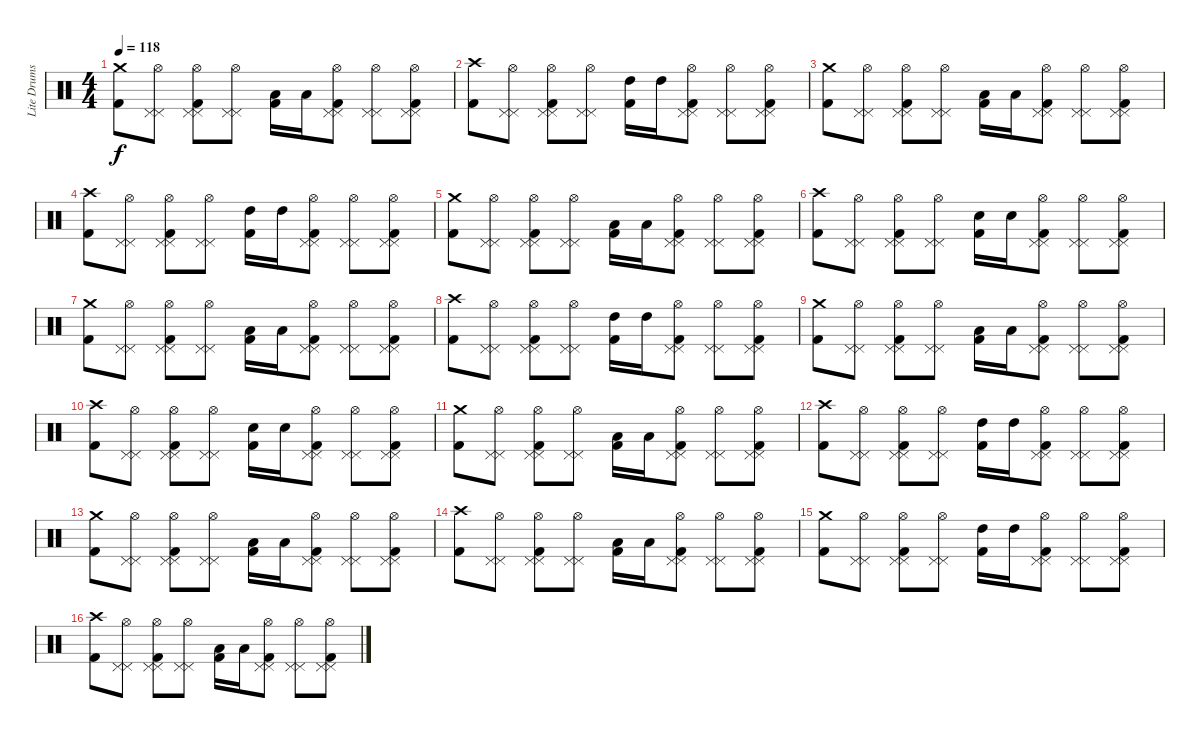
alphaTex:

\track ("Lite Drums" "Lite Drums") {instrument percussion}
\staff {score}
\articulation defaults
\ts (4 4)
\tempo 118
\clef neutral
\ks c
("Crash medium (hit)" "Kick (hit) 2").8{dy f} ("Pedal Hi-Hat (hit)" "Hi-Hat (open)" "Pedal Hi-Hat (hit)").8 ("Pedal Hi-Hat (hit)" "Hi-Hat (open)" "Pedal Hi-Hat (hit)" "Kick (hit) 2").8 ("Pedal Hi-Hat (hit)" "Hi-Hat (open)" "Pedal Hi-Hat (hit)").8 ("Low Tom (hit)" "Kick (hit) 2").16 "Low Tom (hit)".16 ("Pedal Hi-Hat (hit)" "Hi-Hat (open)" "Pedal Hi-Hat (hit)" "Kick (hit) 2").8 ("Pedal Hi-Hat (hit)" "Hi-Hat (open)" "Pedal Hi-Hat (hit)").8 ("Pedal Hi-Hat (hit)" "Hi-Hat (open)" "Pedal Hi-Hat (hit)" "Kick (hit) 2").8 |
("Crash high (hit)" "Kick (hit) 2").8 ("Pedal Hi-Hat (hit)" "Hi-Hat (open)" "Pedal Hi-Hat (hit)").8 ("Pedal Hi-Hat (hit)" "Hi-Hat (open)" "Pedal Hi-Hat (hit)" "Kick (hit) 2").8 ("Pedal Hi-Hat (hit)" "Hi-Hat (open)" "Pedal Hi-Hat (hit)").8 ("High Tom (hit)" "Kick (hit) 2").16 "High Tom (hit)".16 ("Pedal Hi-Hat (hit)" "Hi-Hat (open)" "Pedal Hi-Hat (hit)" "Kick (hit) 2").8 ("Pedal Hi-Hat (hit)" "Hi-Hat (open)" "Pedal Hi-Hat (hit)").8 ("Pedal Hi-Hat (hit)" "Hi-Hat (open)" "Pedal Hi-Hat (hit)" "Kick (hit) 2").8 |
("Crash medium (hit)" "Kick (hit) 2").8 ("Pedal Hi-Hat (hit)" "Hi-Hat (open)" "Pedal Hi-Hat (hit)").8 ("Pedal Hi-Hat (hit)" "Hi-Hat (open)" "Pedal Hi-Hat (hit)" "Kick (hit) 2").8 ("Pedal Hi-Hat (hit)" "Hi-Hat (open)" "Pedal Hi-Hat (hit)").8 ("Low Tom (hit)" "Kick (hit) 2").16 "Low Tom (hit)".16 ("Pedal Hi-Hat (hit)" "Hi-Hat (open)" "Pedal Hi-Hat (hit)" "Kick (hit) 2").8 ("Pedal Hi-Hat (hit)" "Hi-Hat (open)" "Pedal Hi-Hat (hit)").8 ("Pedal Hi-Hat (hit)" "Hi-Hat (open)" "Pedal Hi-Hat (hit)" "Kick (hit) 2").8 |
("Crash high (hit)" "Kick (hit) 2").8 ("Pedal Hi-Hat (hit)" "Hi-Hat (open)" "Pedal Hi-Hat (hit)").8 ("Pedal Hi-Hat (hit)" "Hi-Hat (open)" "Pedal Hi-Hat (hit)" "Kick (hit) 2").8 ("Pedal Hi-Hat (hit)" "Hi-Hat (open)" "Pedal Hi-Hat (hit)").8 ("High Tom (hit)" "Kick (hit) 2").16 "High Tom (hit)".16 ("Pedal Hi-Hat (hit)" "Hi-Hat (open)" "Pedal Hi-Hat (hit)" "Kick (hit) 2").8 ("Pedal Hi-Hat (hit)" "Hi-Hat (open)" "Pedal Hi-Hat (hit)").8 ("Pedal Hi-Hat (hit)" "Hi-Hat (open)" "Pedal Hi-Hat (hit)" "Kick (hit) 2").8 |
("Crash medium (hit)" "Kick (hit) 2").8 ("Pedal Hi-Hat (hit)" "Hi-Hat (open)" "Pedal Hi-Hat (hit)").8 ("Pedal Hi-Hat (hit)" "Hi-Hat (open)" "Pedal Hi-Hat (hit)" "Kick (hit) 2").8 ("Pedal Hi-Hat (hit)" "Hi-Hat (open)" "Pedal Hi-Hat (hit)").8 ("Low Tom (hit)" "Kick (hit) 2").16 "Low Tom (hit)".16 ("Pedal Hi-Hat (hit)" "Hi-Hat (open)" "Pedal Hi-Hat (hit)" "Kick (hit) 2").8 ("Pedal Hi-Hat (hit)" "Hi-Hat (open)" "Pedal Hi-Hat (hit)").8 ("Pedal Hi-Hat (hit)" "Hi-Hat (open)" "Pedal Hi-Hat (hit)" "Kick (hit) 2").8 |
("Crash high (hit)" "Kick (hit) 2").8 ("Pedal Hi-Hat (hit)" "Hi-Hat (open)" "Pedal Hi-Hat (hit)").8 ("Pedal Hi-Hat (hit)" "Hi-Hat (open)" "Pedal Hi-Hat (hit)" "Kick (hit) 2").8 ("Pedal Hi-Hat (hit)" "Hi-Hat (open)" "Pedal Hi-Hat (hit)").8 ("Snare (hit) 2" "Kick (hit) 2").16 "Snare (hit) 2".16 ("Pedal Hi-Hat (hit)" "Hi-Hat (open)" "Pedal Hi-Hat (hit)" "Kick (hit) 2").8 ("Pedal Hi-Hat (hit)" "Hi-Hat (open)" "Pedal Hi-Hat (hit)").8 ("Pedal Hi-Hat (hit)" "Hi-Hat (open)" "Pedal Hi-Hat (hit)" "Kick (hit) 2").8 |
("Crash medium (hit)" "Kick (hit) 2").8 ("Pedal Hi-Hat (hit)" "Hi-Hat (open)" "Pedal Hi-Hat (hit)").8 ("Pedal Hi-Hat (hit)" "Hi-Hat (open)" "Pedal Hi-Hat (hit)" "Kick (hit) 2").8 ("Pedal Hi-Hat (hit)" "Hi-Hat (open)" "Pedal Hi-Hat (hit)").8 ("Low Tom (hit)" "Kick (hit) 2").16 "Low Tom (hit)".16 ("Pedal Hi-Hat (hit)" "Hi-Hat (open)" "Pedal Hi-Hat (hit)" "Kick (hit) 2").8 ("Pedal Hi-Hat (hit)" "Hi-Hat (open)" "Pedal Hi-Hat (hit)").8 ("Pedal Hi-Hat (hit)" "Hi-Hat (open)" "Pedal Hi-Hat (hit)" "Kick (hit) 2").8 |
("Crash high (hit)" "Kick (hit) 2").8 ("Pedal Hi-Hat (hit)" "Hi-Hat (open)" "Pedal Hi-Hat (hit)").8 ("Pedal Hi-Hat (hit)" "Hi-Hat (open)" "Pedal Hi-Hat (hit)" "Kick (hit) 2").8 ("Pedal Hi-Hat (hit)" "Hi-Hat (open)" "Pedal Hi-Hat (hit)").8 ("High Tom (hit)" "Kick (hit) 2").16 "High Tom (hit)".16 ("Pedal Hi-Hat (hit)" "Hi-Hat (open)" "Pedal Hi-Hat (hit)" "Kick (hit) 2").8 ("Pedal Hi-Hat (hit)" "Hi-Hat (open)" "Pedal Hi-Hat (hit)").8 ("Pedal Hi-Hat (hit)" "Hi-Hat (open)" "Pedal Hi-Hat (hit)" "Kick (hit) 2").8 |
("Crash medium (hit)" "Kick (hit) 2").8 ("Pedal Hi-Hat (hit)" "Hi-Hat (open)" "Pedal Hi-Hat (hit)").8 ("Pedal Hi-Hat (hit)" "Hi-Hat (open)" "Pedal Hi-Hat (hit)" "Kick (hit) 2").8 ("Pedal Hi-Hat (hit)" "Hi-Hat (open)" "Pedal Hi-Hat (hit)").8 ("Low Tom (hit)" "Kick (hit) 2").16 "Low Tom (hit)".16 ("Pedal Hi-Hat (hit)" "Hi-Hat (open)" "Pedal Hi-Hat (hit)" "Kick (hit) 2").8 ("Pedal Hi-Hat (hit)" "Hi-Hat (open)" "Pedal Hi-Hat (hit)").8 ("Pedal Hi-Hat (hit)" "Hi-Hat (open)" "Pedal Hi-Hat (hit)" "Kick (hit) 2").8 |
("Crash high (hit)" "Kick (hit) 2").8 ("Pedal Hi-Hat (hit)" "Hi-Hat (open)" "Pedal Hi-Hat (hit)").8 ("Pedal Hi-Hat (hit)" "Hi-Hat (open)" "Pedal Hi-Hat (hit)" "Kick (hit) 2").8 ("Pedal Hi-Hat (hit)" "Hi-Hat (open)" "Pedal Hi-Hat (hit)").8 ("Snare (hit) 2" "Kick (hit) 2").16 "Snare (hit) 2".16 ("Pedal Hi-Hat (hit)" "Hi-Hat (open)" "Pedal Hi-Hat (hit)" "Kick (hit) 2").8 ("Pedal Hi-Hat (hit)" "Hi-Hat (open)" "Pedal Hi-Hat (hit)").8 ("Pedal Hi-Hat (hit)" "Hi-Hat (open)" "Pedal Hi-Hat (hit)" "Kick (hit) 2").8 |
("Crash medium (hit)" "Kick (hit) 2").8 ("Pedal Hi-Hat (hit)" "Hi-Hat (open)" "Pedal Hi-Hat (hit)").8 ("Pedal Hi-Hat (hit)" "Hi-Hat (open)" "Pedal Hi-Hat (hit)" "Kick (hit) 2").8 ("Pedal Hi-Hat (hit)" "Hi-Hat (open)" "Pedal Hi-Hat (hit)").8 ("Low Tom (hit)" "Kick (hit) 2").16 "Low Tom (hit)".16 ("Pedal Hi-Hat (hit)" "Hi-Hat (open)" "Pedal Hi-Hat (hit)" "Kick (hit) 2").8 ("Pedal Hi-Hat (hit)" "Hi-Hat (open)" "Pedal Hi-Hat (hit)").8 ("Pedal Hi-Hat (hit)" "Hi-Hat (open)" "Pedal Hi-Hat (hit)" "Kick (hit) 2").8 |
("Crash high (hit)" "Kick (hit) 2").8 ("Pedal Hi-Hat (hit)" "Hi-Hat (open)" "Pedal Hi-Hat (hit)").8 ("Pedal Hi-Hat (hit)" "Hi-Hat (open)" "Pedal Hi-Hat (hit)" "Kick (hit) 2").8 ("Pedal Hi-Hat (hit)" "Hi-Hat (open)" "Pedal Hi-Hat (hit)").8 ("High Tom (hit)" "Kick (hit) 2").16 "High Tom (hit)".16 ("Pedal Hi-Hat (hit)" "Hi-Hat (open)" "Pedal Hi-Hat (hit)" "Kick (hit) 2").8 ("Pedal Hi-Hat (hit)" "Hi-Hat (open)" "Pedal Hi-Hat (hit)").8 ("Pedal Hi-Hat (hit)" "Hi-Hat (open)" "Pedal Hi-Hat (hit)" "Kick (hit) 2").8 |
("Crash medium (hit)" "Kick (hit) 2").8 ("Pedal Hi-Hat (hit)" "Hi-Hat (open)" "Pedal Hi-Hat (hit)").8 ("Pedal Hi-Hat (hit)" "Hi-Hat (open)" "Pedal Hi-Hat (hit)" "Kick (hit) 2").8 ("Pedal Hi-Hat (hit)" "Hi-Hat (open)" "Pedal Hi-Hat (hit)").8 ("Low Tom (hit)" "Kick (hit) 2").16 "Low Tom (hit)".16 ("Pedal Hi-Hat (hit)" "Hi-Hat (open)" "Pedal Hi-Hat (hit)" "Kick (hit) 2").8 ("Pedal Hi-Hat (hit)" "Hi-Hat (open)" "Pedal Hi-Hat (hit)").8 ("Pedal Hi-Hat (hit)" "Hi-Hat (open)" "Pedal Hi-Hat (hit)" "Kick (hit) 2").8 |
("Crash high (hit)" "Kick (hit) 2").8 ("Pedal Hi-Hat (hit)" "Hi-Hat (open)" "Pedal Hi-Hat (hit)").8 ("Pedal Hi-Hat (hit)" "Hi-Hat (open)" "Pedal Hi-Hat (hit)" "Kick (hit) 2").8 ("Pedal Hi-Hat (hit)" "Hi-Hat (open)" "Pedal Hi-Hat (hit)").8 ("Low Tom (hit)" "Kick (hit) 2").16 "Low Tom (hit)".16 ("Pedal Hi-Hat (hit)" "Hi-Hat (open)" "Pedal Hi-Hat (hit)" "Kick (hit) 2").8 ("Pedal Hi-Hat (hit)" "Hi-Hat (open)" "Pedal Hi-Hat (hit)").8 ("Pedal Hi-Hat (hit)" "Hi-Hat (open)" "Pedal Hi-Hat (hit)" "Kick (hit) 2").8 |
("Crash medium (hit)" "Kick (hit) 2").8 ("Pedal Hi-Hat (hit)" "Hi-Hat (open)" "Pedal Hi-Hat (hit)").8 ("Pedal Hi-Hat (hit)" "Hi-Hat (open)" "Pedal Hi-Hat (hit)" "Kick (hit) 2").8 ("Pedal Hi-Hat (hit)" "Hi-Hat (open)" "Pedal Hi-Hat (hit)").8 ("High Tom (hit)" "Kick (hit) 2").16 "High Tom (hit)".16 ("Pedal Hi-Hat (hit)" "Hi-Hat (open)" "Pedal Hi-Hat (hit)" "Kick (hit) 2").8 ("Pedal Hi-Hat (hit)" "Hi-Hat (open)" "Pedal Hi-Hat (hit)").8 ("Pedal Hi-Hat (hit)" "Hi-Hat (open)" "Pedal Hi-Hat (hit)" "Kick (hit) 2").8 |
("Crash high (hit)" "Kick (hit) 2").8 ("Pedal Hi-Hat (hit)" "Hi-Hat (open)" "Pedal Hi-Hat (hit)").8 ("Pedal Hi-Hat (hit)" "Hi-Hat (open)" "Pedal Hi-Hat (hit)" "Kick (hit) 2").8 ("Pedal Hi-Hat (hit)" "Hi-Hat (open)" "Pedal Hi-Hat (hit)").8 ("Low Tom (hit)" "Kick (hit) 2").16 "Low Tom (hit)".16 ("Pedal Hi-Hat (hit)" "Hi-Hat (open)" "Pedal Hi-Hat (hit)" "Kick (hit) 2").8 ("Pedal Hi-Hat (hit)" "Hi-Hat (open)" "Pedal Hi-Hat (hit)").8 ("Pedal Hi-Hat (hit)" "Hi-Hat (open)" "Pedal Hi-Hat (hit)" "Kick (hit) 2").8
